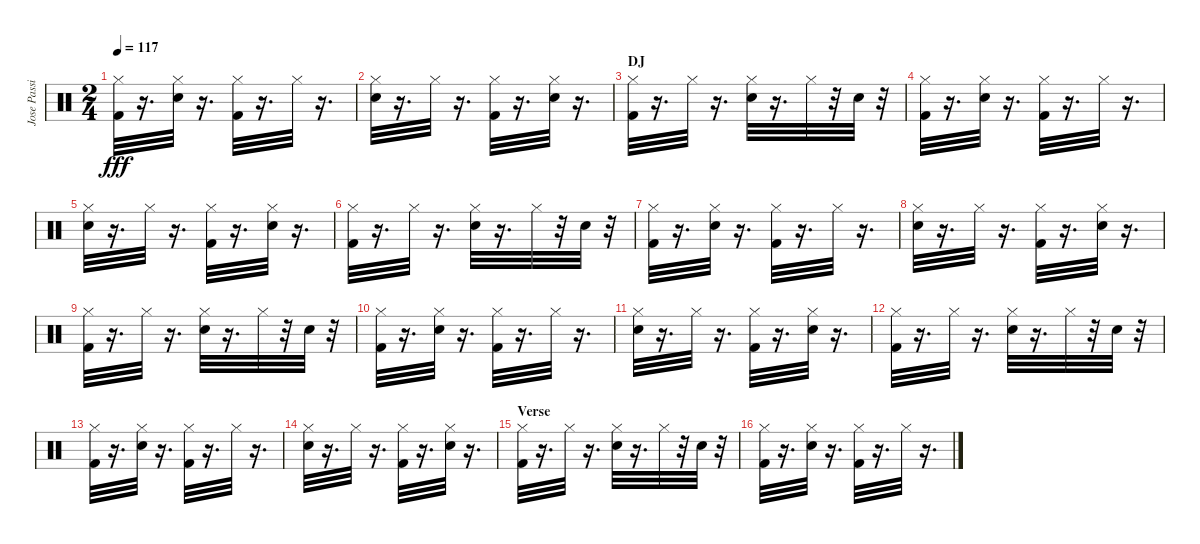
\track ("Jose Passilas-drums" "Jose Passi") {instrument percussion}
\staff {score}
\articulation defaults
\ts (2 4)
\tempo 117
\clef neutral
\ks c
("Kick (hit) 2" "Hi-Hat (closed)").32{dy fff} r.16{d} ("Electric Snare (hit)" "Hi-Hat (closed)").32 r.16{d} ("Kick (hit) 2" "Hi-Hat (closed)").32 r.16{d} "Hi-Hat (closed)".32 r.16{d} |
("Electric Snare (hit)" "Hi-Hat (closed)").32 r.16{d} "Hi-Hat (closed)".32 r.16{d} ("Kick (hit) 2" "Hi-Hat (closed)").32 r.16{d} ("Electric Snare (hit)" "Hi-Hat (closed)").32 r.16{d} |
\section ("" "DJ")
("Hi-Hat (closed)" "Kick (hit) 2").32 r.16{d} "Hi-Hat (closed)".32 r.16{d} ("Electric Snare (hit)" "Hi-Hat (closed)").32 r.16{d} "Hi-Hat (closed)".32 r.32 "Electric Snare (hit)".32 r.32 |
("Hi-Hat (closed)" "Kick (hit) 2").32 r.16{d} ("Electric Snare (hit)" "Hi-Hat (closed)").32 r.16{d} ("Hi-Hat (closed)" "Kick (hit) 2").32 r.16{d} "Hi-Hat (closed)".32 r.16{d} |
("Electric Snare (hit)" "Hi-Hat (closed)").32 r.16{d} "Hi-Hat (closed)".32 r.16{d} ("Hi-Hat (closed)" "Kick (hit) 2").32 r.16{d} ("Electric Snare (hit)" "Hi-Hat (closed)").32 r.16{d} |
("Kick (hit) 2" "Hi-Hat (closed)").32 r.16{d} "Hi-Hat (closed)".32 r.16{d} ("Electric Snare (hit)" "Hi-Hat (closed)").32 r.16{d} "Hi-Hat (closed)".32 r.32 "Electric Snare (hit)".32 r.32 |
("Kick (hit) 2" "Hi-Hat (closed)").32 r.16{d} ("Electric Snare (hit)" "Hi-Hat (closed)").32 r.16{d} ("Kick (hit) 2" "Hi-Hat (closed)").32 r.16{d} "Hi-Hat (closed)".32 r.16{d} |
("Electric Snare (hit)" "Hi-Hat (closed)").32 r.16{d} "Hi-Hat (closed)".32 r.16{d} ("Kick (hit) 2" "Hi-Hat (closed)").32 r.16{d} ("Electric Snare (hit)" "Hi-Hat (closed)").32 r.16{d} |
("Hi-Hat (closed)" "Kick (hit) 2").32 r.16{d} "Hi-Hat (closed)".32 r.16{d} ("Electric Snare (hit)" "Hi-Hat (closed)").32 r.16{d} "Hi-Hat (closed)".32 r.32 "Electric Snare (hit)".32 r.32 |
("Hi-Hat (closed)" "Kick (hit) 2").32 r.16{d} ("Electric Snare (hit)" "Hi-Hat (closed)").32 r.16{d} ("Hi-Hat (closed)" "Kick (hit) 2").32 r.16{d} "Hi-Hat (closed)".32 r.16{d} |
("Electric Snare (hit)" "Hi-Hat (closed)").32 r.16{d} "Hi-Hat (closed)".32 r.16{d} ("Hi-Hat (closed)" "Kick (hit) 2").32 r.16{d} ("Electric Snare (hit)" "Hi-Hat (closed)").32 r.16{d} |
("Kick (hit) 2" "Hi-Hat (closed)").32 r.16{d} "Hi-Hat (closed)".32 r.16{d} ("Electric Snare (hit)" "Hi-Hat (closed)").32 r.16{d} "Hi-Hat (closed)".32 r.32 "Electric Snare (hit)".32 r.32 |
("Kick (hit) 2" "Hi-Hat (closed)").32 r.16{d} ("Electric Snare (hit)" "Hi-Hat (closed)").32 r.16{d} ("Kick (hit) 2" "Hi-Hat (closed)").32 r.16{d} "Hi-Hat (closed)".32 r.16{d} |
("Electric Snare (hit)" "Hi-Hat (closed)").32 r.16{d} "Hi-Hat (closed)".32 r.16{d} ("Kick (hit) 2" "Hi-Hat (closed)").32 r.16{d} ("Electric Snare (hit)" "Hi-Hat (closed)").32 r.16{d} |
\section ("" "Verse")
("Hi-Hat (closed)" "Kick (hit) 2").32 r.16{d} "Hi-Hat (closed)".32 r.16{d} ("Electric Snare (hit)" "Hi-Hat (closed)").32 r.16{d} "Hi-Hat (closed)".32 r.32 "Electric Snare (hit)".32 r.32 |
("Hi-Hat (closed)" "Kick (hit) 2").32 r.16{d} ("Electric Snare (hit)" "Hi-Hat (closed)").32 r.16{d} ("Hi-Hat (closed)" "Kick (hit) 2").32 r.16{d} "Hi-Hat (closed)".32 r.16{d}
